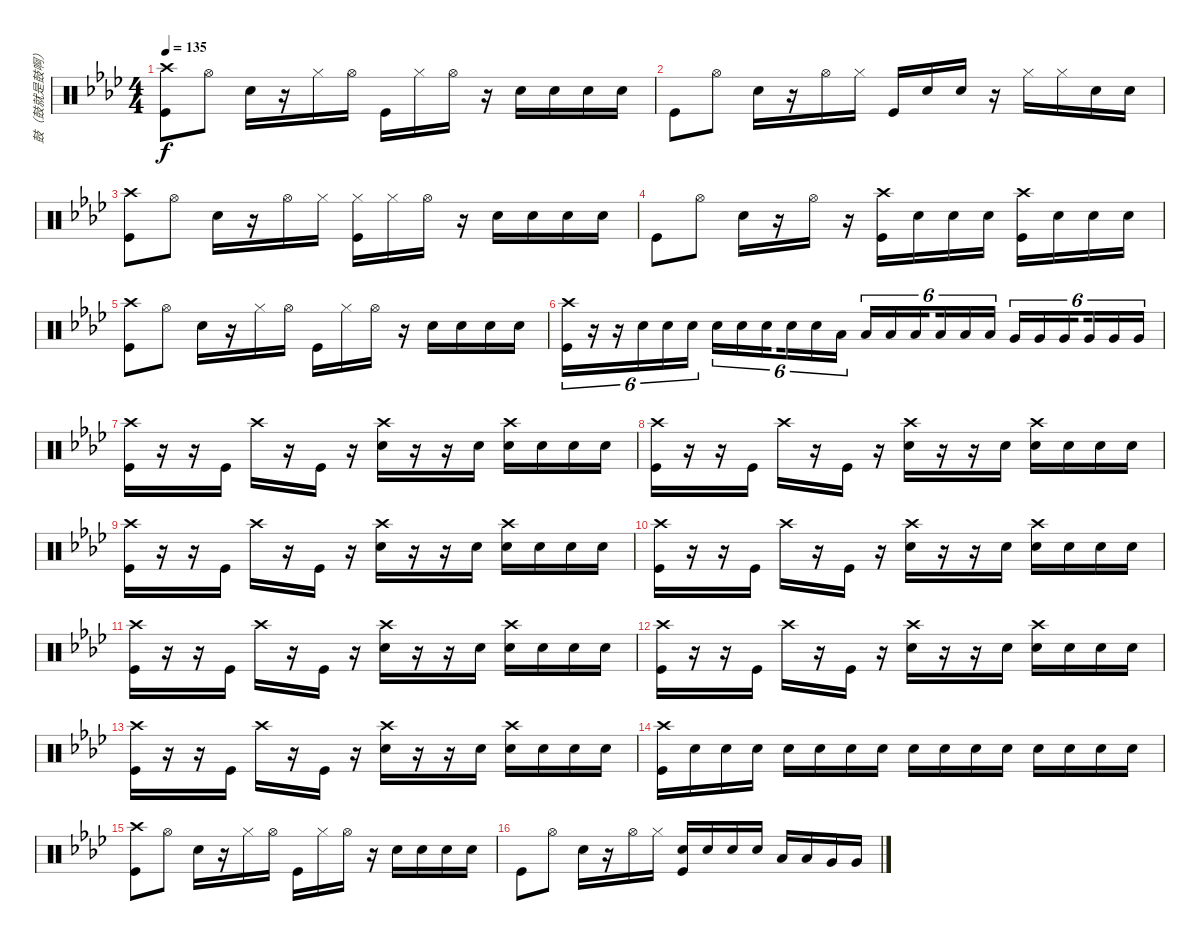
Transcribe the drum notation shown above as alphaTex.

\track ("鼓（鼓就是鼓啊）" "鼓（鼓就是鼓啊）") {instrument percussion}
\staff {score}
\articulation defaults
\ts (4 4)
\tempo 135
\clef neutral
\ks ab
("Crash high (hit)" "Kick (hit)").8{dy f} "Hi-Hat (open)".8 "Snare (hit) 2".16 r.16 "Hi-Hat (closed)".16 "Hi-Hat (open)".16 "Kick (hit)".16 "Hi-Hat (closed)".16 "Hi-Hat (open)".16 r.16 "Snare (hit) 2".16 "Snare (hit) 2".16 "Snare (hit) 2".16 "Snare (hit) 2".16 |
"Kick (hit)".8 "Hi-Hat (open)".8 "Snare (hit) 2".16 r.16 "Hi-Hat (open)".16 "Hi-Hat (closed)".16 "Kick (hit)".16 "Snare (hit) 2".16 "Snare (hit) 2".16 r.16 "Hi-Hat (closed)".16 "Hi-Hat (closed)".16 "Snare (hit) 2".16 "Snare (hit) 2".16 |
("Crash high (hit)" "Kick (hit)").8 "Hi-Hat (open)".8 "Snare (hit) 2".16 r.16 "Hi-Hat (open)".16 "Hi-Hat (closed)".16 ("Hi-Hat (closed)" "Kick (hit)").16 "Hi-Hat (closed)".16 "Hi-Hat (open)".16 r.16 "Snare (hit) 2".16 "Snare (hit) 2".16 "Snare (hit) 2".16 "Snare (hit) 2".16 |
"Kick (hit)".8 "Hi-Hat (open)".8 "Snare (hit) 2".16 r.16 "Hi-Hat (open)".16 r.16 ("Crash high (hit)" "Kick (hit)").16 "Snare (hit) 2".16 "Snare (hit) 2".16 "Snare (hit) 2".16 ("Crash high (hit)" "Kick (hit)").16 "Snare (hit) 2".16 "Snare (hit) 2".16 "Snare (hit) 2".16 |
("Crash high (hit)" "Kick (hit)").8 "Hi-Hat (open)".8 "Snare (hit) 2".16 r.16 "Hi-Hat (closed)".16 "Hi-Hat (open)".16 "Kick (hit)".16 "Hi-Hat (closed)".16 "Hi-Hat (open)".16 r.16 "Snare (hit) 2".16 "Snare (hit) 2".16 "Snare (hit) 2".16 "Snare (hit) 2".16 |
("Crash high (hit)" "Kick (hit)").16{tu (6 4)} r.16{tu (6 4)} r.16{tu (6 4)} "Snare (hit) 2".16{tu (6 4)} "Snare (hit) 2".16{tu (6 4)} "Snare (hit) 2".16{tu (6 4)} "Snare (hit) 2".16{tu (6 4)} "Snare (hit) 2".16{tu (6 4)} "Snare (hit) 2".16{tu (6 4) beam splitsecondary} "Snare (hit) 2".16{tu (6 4)} "Snare (hit) 2".16{tu (6 4)} "Low Tom (hit)".16{tu (6 4)} "Low Tom (hit)".16{tu (6 4)} "Low Tom (hit)".16{tu (6 4)} "Low Tom (hit)".16{tu (6 4) beam splitsecondary} "Low Tom (hit)".16{tu (6 4)} "Low Tom (hit)".16{tu (6 4)} "Low Tom (hit)".16{tu (6 4)} "Very Low Tom (hit)".16{tu (6 4)} "Very Low Tom (hit)".16{tu (6 4)} "Very Low Tom (hit)".16{tu (6 4) beam splitsecondary} "Very Low Tom (hit)".16{tu (6 4)} "Very Low Tom (hit)".16{tu (6 4)} "Very Low Tom (hit)".16{tu (6 4)} |
("Crash high (hit)" "Kick (hit)").16 r.16 r.16 "Kick (hit)".16 "Crash high (hit)".16 r.16 "Kick (hit)".16 r.16 ("Crash high (hit)" "Snare (hit) 2").16 r.16 r.16 "Snare (hit) 2".16 ("Crash high (hit)" "Snare (hit) 2").16 "Snare (hit) 2".16 "Snare (hit) 2".16 "Snare (hit) 2".16 |
("Crash high (hit)" "Kick (hit)").16 r.16 r.16 "Kick (hit)".16 "Crash high (hit)".16 r.16 "Kick (hit)".16 r.16 ("Crash high (hit)" "Snare (hit) 2").16 r.16 r.16 "Snare (hit) 2".16 ("Crash high (hit)" "Snare (hit) 2").16 "Snare (hit) 2".16 "Snare (hit) 2".16 "Snare (hit) 2".16 |
("Crash high (hit)" "Kick (hit)").16 r.16 r.16 "Kick (hit)".16 "Crash high (hit)".16 r.16 "Kick (hit)".16 r.16 ("Crash high (hit)" "Snare (hit) 2").16 r.16 r.16 "Snare (hit) 2".16 ("Crash high (hit)" "Snare (hit) 2").16 "Snare (hit) 2".16 "Snare (hit) 2".16 "Snare (hit) 2".16 |
("Crash high (hit)" "Kick (hit)").16 r.16 r.16 "Kick (hit)".16 "Crash high (hit)".16 r.16 "Kick (hit)".16 r.16 ("Crash high (hit)" "Snare (hit) 2").16 r.16 r.16 "Snare (hit) 2".16 ("Crash high (hit)" "Snare (hit) 2").16 "Snare (hit) 2".16 "Snare (hit) 2".16 "Snare (hit) 2".16 |
("Crash high (hit)" "Kick (hit)").16 r.16 r.16 "Kick (hit)".16 "Crash high (hit)".16 r.16 "Kick (hit)".16 r.16 ("Crash high (hit)" "Snare (hit) 2").16 r.16 r.16 "Snare (hit) 2".16 ("Crash high (hit)" "Snare (hit) 2").16 "Snare (hit) 2".16 "Snare (hit) 2".16 "Snare (hit) 2".16 |
("Crash high (hit)" "Kick (hit)").16 r.16 r.16 "Kick (hit)".16 "Crash high (hit)".16 r.16 "Kick (hit)".16 r.16 ("Crash high (hit)" "Snare (hit) 2").16 r.16 r.16 "Snare (hit) 2".16 ("Crash high (hit)" "Snare (hit) 2").16 "Snare (hit) 2".16 "Snare (hit) 2".16 "Snare (hit) 2".16 |
("Crash high (hit)" "Kick (hit)").16 r.16 r.16 "Kick (hit)".16 "Crash high (hit)".16 r.16 "Kick (hit)".16 r.16 ("Crash high (hit)" "Snare (hit) 2").16 r.16 r.16 "Snare (hit) 2".16 ("Crash high (hit)" "Snare (hit) 2").16 "Snare (hit) 2".16 "Snare (hit) 2".16 "Snare (hit) 2".16 |
("Crash high (hit)" "Kick (hit)").16 "Snare (hit) 2".16 "Snare (hit) 2".16 "Snare (hit) 2".16 "Snare (hit) 2".16 "Snare (hit) 2".16 "Snare (hit) 2".16 "Snare (hit) 2".16 "Snare (hit) 2".16 "Snare (hit) 2".16 "Snare (hit) 2".16 "Snare (hit) 2".16 "Snare (hit) 2".16 "Snare (hit) 2".16 "Snare (hit) 2".16 "Snare (hit) 2".16 |
("Crash high (hit)" "Kick (hit)").8 "Hi-Hat (open)".8 "Snare (hit) 2".16 r.16 "Hi-Hat (closed)".16 "Hi-Hat (open)".16 "Kick (hit)".16 "Hi-Hat (closed)".16 "Hi-Hat (open)".16 r.16 "Snare (hit) 2".16 "Snare (hit) 2".16 "Snare (hit) 2".16 "Snare (hit) 2".16 |
"Kick (hit)".8 "Hi-Hat (open)".8 "Snare (hit) 2".16 r.16 "Hi-Hat (open)".16 "Hi-Hat (closed)".16 ("Snare (hit) 2" "Kick (hit)").16 "Snare (hit) 2".16 "Snare (hit) 2".16 "Snare (hit) 2".16 "Low Tom (hit)".16 "Low Tom (hit)".16 "Very Low Tom (hit)".16 "Very Low Tom (hit)".16
